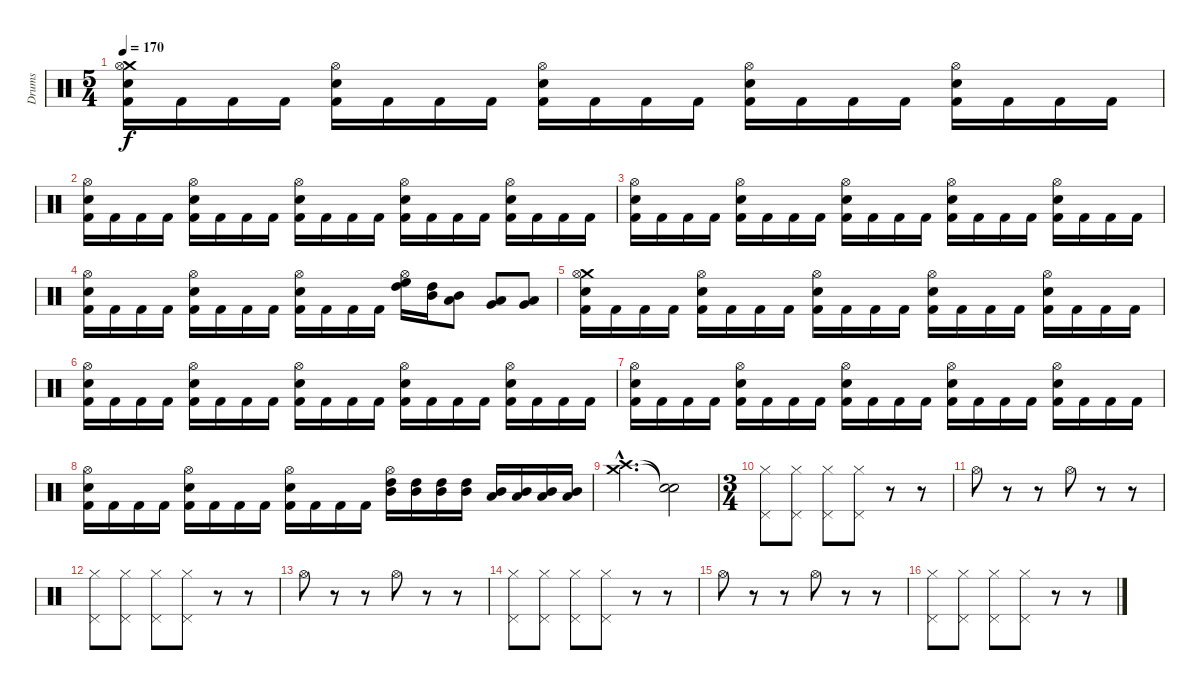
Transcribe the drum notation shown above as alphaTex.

\track ("Drums" "Drums") {instrument percussion}
\staff {score}
\articulation defaults
\ts (5 4)
\tempo 170
\clef neutral
\ks c
("Crash medium (hit)" "Hi-Hat (open)" "Electric Snare (hit)" "Kick (hit) 2").16{dy f} "Kick (hit) 2".16 "Kick (hit) 2".16 "Kick (hit) 2".16 ("Hi-Hat (open)" "Electric Snare (hit)" "Kick (hit) 2").16 "Kick (hit) 2".16 "Kick (hit) 2".16 "Kick (hit) 2".16 ("Hi-Hat (open)" "Electric Snare (hit)" "Kick (hit) 2").16 "Kick (hit) 2".16 "Kick (hit) 2".16 "Kick (hit) 2".16 ("Hi-Hat (open)" "Electric Snare (hit)" "Kick (hit) 2").16 "Kick (hit) 2".16 "Kick (hit) 2".16 "Kick (hit) 2".16 ("Hi-Hat (open)" "Electric Snare (hit)" "Kick (hit) 2").16 "Kick (hit) 2".16 "Kick (hit) 2".16 "Kick (hit) 2".16 |
("Hi-Hat (open)" "Electric Snare (hit)" "Kick (hit) 2").16 "Kick (hit) 2".16 "Kick (hit) 2".16 "Kick (hit) 2".16 ("Hi-Hat (open)" "Electric Snare (hit)" "Kick (hit) 2").16 "Kick (hit) 2".16 "Kick (hit) 2".16 "Kick (hit) 2".16 ("Hi-Hat (open)" "Electric Snare (hit)" "Kick (hit) 2").16 "Kick (hit) 2".16 "Kick (hit) 2".16 "Kick (hit) 2".16 ("Hi-Hat (open)" "Electric Snare (hit)" "Kick (hit) 2").16 "Kick (hit) 2".16 "Kick (hit) 2".16 "Kick (hit) 2".16 ("Hi-Hat (open)" "Electric Snare (hit)" "Kick (hit) 2").16 "Kick (hit) 2".16 "Kick (hit) 2".16 "Kick (hit) 2".16 |
("Hi-Hat (open)" "Electric Snare (hit)" "Kick (hit) 2").16 "Kick (hit) 2".16 "Kick (hit) 2".16 "Kick (hit) 2".16 ("Hi-Hat (open)" "Electric Snare (hit)" "Kick (hit) 2").16 "Kick (hit) 2".16 "Kick (hit) 2".16 "Kick (hit) 2".16 ("Hi-Hat (open)" "Electric Snare (hit)" "Kick (hit) 2").16 "Kick (hit) 2".16 "Kick (hit) 2".16 "Kick (hit) 2".16 ("Hi-Hat (open)" "Electric Snare (hit)" "Kick (hit) 2").16 "Kick (hit) 2".16 "Kick (hit) 2".16 "Kick (hit) 2".16 ("Hi-Hat (open)" "Electric Snare (hit)" "Kick (hit) 2").16 "Kick (hit) 2".16 "Kick (hit) 2".16 "Kick (hit) 2".16 |
("Hi-Hat (open)" "Electric Snare (hit)" "Kick (hit) 2").16 "Kick (hit) 2".16 "Kick (hit) 2".16 "Kick (hit) 2".16 ("Hi-Hat (open)" "Electric Snare (hit)" "Kick (hit) 2").16 "Kick (hit) 2".16 "Kick (hit) 2".16 "Kick (hit) 2".16 ("Hi-Hat (open)" "Electric Snare (hit)" "Kick (hit) 2").16 "Kick (hit) 2".16 "Kick (hit) 2".16 "Kick (hit) 2".16 ("Hi-Hat (open)" "High Floor Tom (hit)" "High Tom (hit)").16 ("High Tom (hit)" "Mid Tom (hit)").16 ("Mid Tom (hit)" "Low Tom (hit)").8 ("Low Tom (hit)" "Very Low Tom (hit)").8 ("Very Low Tom (hit)" "Low Floor Tom (hit)").8 |
("Crash medium (hit)" "Hi-Hat (open)" "Electric Snare (hit)" "Kick (hit) 2").16 "Kick (hit) 2".16 "Kick (hit) 2".16 "Kick (hit) 2".16 ("Hi-Hat (open)" "Electric Snare (hit)" "Kick (hit) 2").16 "Kick (hit) 2".16 "Kick (hit) 2".16 "Kick (hit) 2".16 ("Hi-Hat (open)" "Electric Snare (hit)" "Kick (hit) 2").16 "Kick (hit) 2".16 "Kick (hit) 2".16 "Kick (hit) 2".16 ("Hi-Hat (open)" "Electric Snare (hit)" "Kick (hit) 2").16 "Kick (hit) 2".16 "Kick (hit) 2".16 "Kick (hit) 2".16 ("Hi-Hat (open)" "Electric Snare (hit)" "Kick (hit) 2").16 "Kick (hit) 2".16 "Kick (hit) 2".16 "Kick (hit) 2".16 |
("Hi-Hat (open)" "Electric Snare (hit)" "Kick (hit) 2").16 "Kick (hit) 2".16 "Kick (hit) 2".16 "Kick (hit) 2".16 ("Hi-Hat (open)" "Electric Snare (hit)" "Kick (hit) 2").16 "Kick (hit) 2".16 "Kick (hit) 2".16 "Kick (hit) 2".16 ("Hi-Hat (open)" "Electric Snare (hit)" "Kick (hit) 2").16 "Kick (hit) 2".16 "Kick (hit) 2".16 "Kick (hit) 2".16 ("Hi-Hat (open)" "Electric Snare (hit)" "Kick (hit) 2").16 "Kick (hit) 2".16 "Kick (hit) 2".16 "Kick (hit) 2".16 ("Hi-Hat (open)" "Electric Snare (hit)" "Kick (hit) 2").16 "Kick (hit) 2".16 "Kick (hit) 2".16 "Kick (hit) 2".16 |
("Hi-Hat (open)" "Electric Snare (hit)" "Kick (hit) 2").16 "Kick (hit) 2".16 "Kick (hit) 2".16 "Kick (hit) 2".16 ("Hi-Hat (open)" "Electric Snare (hit)" "Kick (hit) 2").16 "Kick (hit) 2".16 "Kick (hit) 2".16 "Kick (hit) 2".16 ("Hi-Hat (open)" "Electric Snare (hit)" "Kick (hit) 2").16 "Kick (hit) 2".16 "Kick (hit) 2".16 "Kick (hit) 2".16 ("Hi-Hat (open)" "Electric Snare (hit)" "Kick (hit) 2").16 "Kick (hit) 2".16 "Kick (hit) 2".16 "Kick (hit) 2".16 ("Hi-Hat (open)" "Electric Snare (hit)" "Kick (hit) 2").16 "Kick (hit) 2".16 "Kick (hit) 2".16 "Kick (hit) 2".16 |
("Hi-Hat (open)" "Electric Snare (hit)" "Kick (hit) 2").16 "Kick (hit) 2".16 "Kick (hit) 2".16 "Kick (hit) 2".16 ("Hi-Hat (open)" "Electric Snare (hit)" "Kick (hit) 2").16 "Kick (hit) 2".16 "Kick (hit) 2".16 "Kick (hit) 2".16 ("Hi-Hat (open)" "Electric Snare (hit)" "Kick (hit) 2").16 "Kick (hit) 2".16 "Kick (hit) 2".16 "Kick (hit) 2".16 ("Hi-Hat (open)" "Mid Tom (hit)" "High Tom (hit)").16 ("Mid Tom (hit)" "High Tom (hit)").16 ("Mid Tom (hit)" "High Tom (hit)").16 ("Mid Tom (hit)" "High Tom (hit)").16 ("Low Tom (hit)" "Mid Tom (hit)").16 ("Low Tom (hit)" "Mid Tom (hit)").16 ("Low Tom (hit)" "Mid Tom (hit)").16 ("Low Tom (hit)" "Mid Tom (hit)").16 |
("Crash medium (hit)"{hac} "Crash high (hit)"{hac}).2{d} ("Snare (hit)"{t} "Snare (hit)"{t}).2 |
\ts (3 4)
("Pedal Hi-Hat (hit)" "Hi-Hat (closed)").8 ("Pedal Hi-Hat (hit)" "Hi-Hat (closed)").8 ("Pedal Hi-Hat (hit)" "Hi-Hat (closed)").8 ("Pedal Hi-Hat (hit)" "Hi-Hat (closed)").8 r.8 r.8 |
"Hi-Hat (open)".8 r.8 r.8 "Hi-Hat (open)".8 r.8 r.8 |
("Pedal Hi-Hat (hit)" "Hi-Hat (closed)").8 ("Pedal Hi-Hat (hit)" "Hi-Hat (closed)").8 ("Pedal Hi-Hat (hit)" "Hi-Hat (closed)").8 ("Pedal Hi-Hat (hit)" "Hi-Hat (closed)").8 r.8 r.8 |
"Hi-Hat (open)".8 r.8 r.8 "Hi-Hat (open)".8 r.8 r.8 |
("Pedal Hi-Hat (hit)" "Hi-Hat (closed)").8 ("Pedal Hi-Hat (hit)" "Hi-Hat (closed)").8 ("Pedal Hi-Hat (hit)" "Hi-Hat (closed)").8 ("Pedal Hi-Hat (hit)" "Hi-Hat (closed)").8 r.8 r.8 |
"Hi-Hat (open)".8 r.8 r.8 "Hi-Hat (open)".8 r.8 r.8 |
("Pedal Hi-Hat (hit)" "Hi-Hat (closed)").8 ("Pedal Hi-Hat (hit)" "Hi-Hat (closed)").8 ("Pedal Hi-Hat (hit)" "Hi-Hat (closed)").8 ("Pedal Hi-Hat (hit)" "Hi-Hat (closed)").8 r.8 r.8
